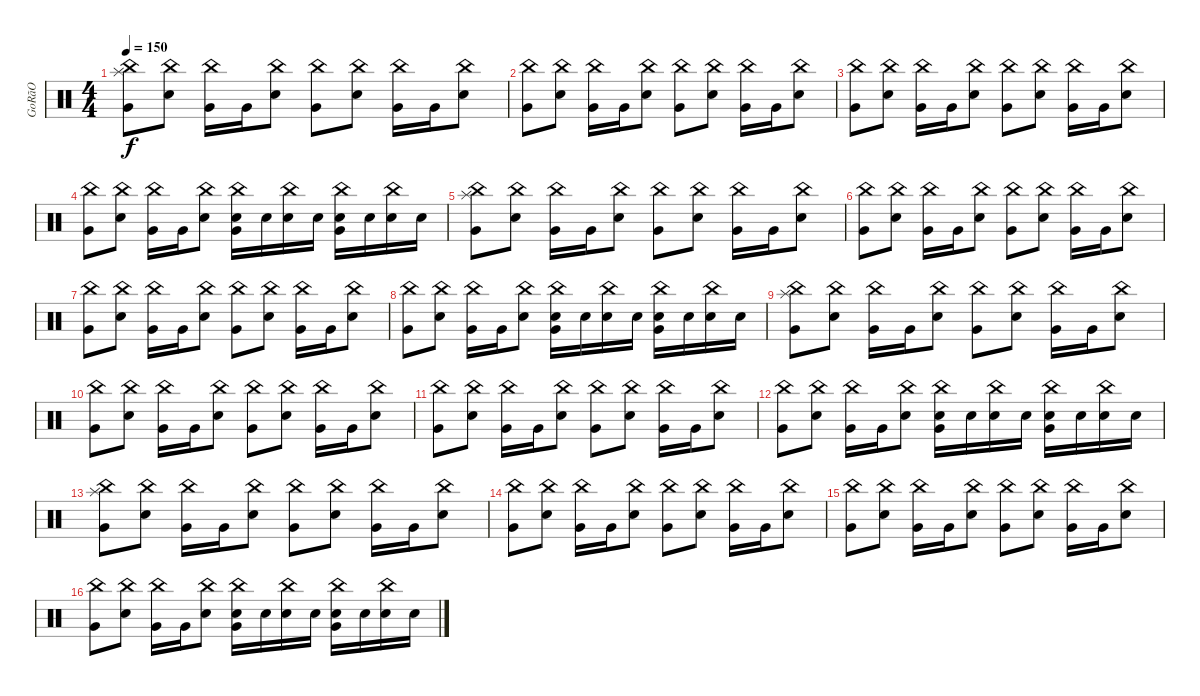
\track ("GoRãO" "GoRãO") {instrument percussion}
\staff {score}
\articulation defaults
\ts (4 4)
\tempo 150
\clef neutral
\ks c
("Very Low Tom (hit)" "Splash (hit)" "China (hit)").8{dy f} ("Electric Snare (hit)" "China (hit)").8 ("Very Low Tom (hit)" "China (hit)").16 "Very Low Tom (hit)".16 ("Electric Snare (hit)" "China (hit)").8 ("Very Low Tom (hit)" "China (hit)").8 ("Electric Snare (hit)" "China (hit)").8 ("Very Low Tom (hit)" "China (hit)").16 "Very Low Tom (hit)".16 ("Electric Snare (hit)" "China (hit)").8 |
("Very Low Tom (hit)" "China (hit)").8 ("Electric Snare (hit)" "China (hit)").8 ("Very Low Tom (hit)" "China (hit)").16 "Very Low Tom (hit)".16 ("Electric Snare (hit)" "China (hit)").8 ("Very Low Tom (hit)" "China (hit)").8 ("Electric Snare (hit)" "China (hit)").8 ("Very Low Tom (hit)" "China (hit)").16 "Very Low Tom (hit)".16 ("Electric Snare (hit)" "China (hit)").8 |
("Very Low Tom (hit)" "China (hit)").8 ("Electric Snare (hit)" "China (hit)").8 ("Very Low Tom (hit)" "China (hit)").16 "Very Low Tom (hit)".16 ("Electric Snare (hit)" "China (hit)").8 ("Very Low Tom (hit)" "China (hit)").8 ("Electric Snare (hit)" "China (hit)").8 ("Very Low Tom (hit)" "China (hit)").16 "Very Low Tom (hit)".16 ("Electric Snare (hit)" "China (hit)").8 |
("Very Low Tom (hit)" "China (hit)").8 ("Electric Snare (hit)" "China (hit)").8 ("Very Low Tom (hit)" "China (hit)").16 "Very Low Tom (hit)".16 ("Electric Snare (hit)" "China (hit)").8 ("Snare (hit) 2" "Very Low Tom (hit)" "China (hit)").16 "Snare (hit) 2".16 ("Snare (hit) 2" "China (hit)").16 "Snare (hit) 2".16 ("Snare (hit) 2" "Very Low Tom (hit)" "China (hit)").16 "Snare (hit) 2".16 ("Snare (hit) 2" "China (hit)").16 "Snare (hit) 2".16 |
("Very Low Tom (hit)" "Splash (hit)" "China (hit)").8 ("Electric Snare (hit)" "China (hit)").8 ("Very Low Tom (hit)" "China (hit)").16 "Very Low Tom (hit)".16 ("Electric Snare (hit)" "China (hit)").8 ("Very Low Tom (hit)" "China (hit)").8 ("Electric Snare (hit)" "China (hit)").8 ("Very Low Tom (hit)" "China (hit)").16 "Very Low Tom (hit)".16 ("Electric Snare (hit)" "China (hit)").8 |
("Very Low Tom (hit)" "China (hit)").8 ("Electric Snare (hit)" "China (hit)").8 ("Very Low Tom (hit)" "China (hit)").16 "Very Low Tom (hit)".16 ("Electric Snare (hit)" "China (hit)").8 ("Very Low Tom (hit)" "China (hit)").8 ("Electric Snare (hit)" "China (hit)").8 ("Very Low Tom (hit)" "China (hit)").16 "Very Low Tom (hit)".16 ("Electric Snare (hit)" "China (hit)").8 |
("Very Low Tom (hit)" "China (hit)").8 ("Electric Snare (hit)" "China (hit)").8 ("Very Low Tom (hit)" "China (hit)").16 "Very Low Tom (hit)".16 ("Electric Snare (hit)" "China (hit)").8 ("Very Low Tom (hit)" "China (hit)").8 ("Electric Snare (hit)" "China (hit)").8 ("Very Low Tom (hit)" "China (hit)").16 "Very Low Tom (hit)".16 ("Electric Snare (hit)" "China (hit)").8 |
("Very Low Tom (hit)" "China (hit)").8 ("Electric Snare (hit)" "China (hit)").8 ("Very Low Tom (hit)" "China (hit)").16 "Very Low Tom (hit)".16 ("Electric Snare (hit)" "China (hit)").8 ("Snare (hit) 2" "Very Low Tom (hit)" "China (hit)").16 "Snare (hit) 2".16 ("Snare (hit) 2" "China (hit)").16 "Snare (hit) 2".16 ("Snare (hit) 2" "Very Low Tom (hit)" "China (hit)").16 "Snare (hit) 2".16 ("Snare (hit) 2" "China (hit)").16 "Snare (hit) 2".16 |
("Very Low Tom (hit)" "Splash (hit)" "China (hit)").8 ("Electric Snare (hit)" "China (hit)").8 ("Very Low Tom (hit)" "China (hit)").16 "Very Low Tom (hit)".16 ("Electric Snare (hit)" "China (hit)").8 ("Very Low Tom (hit)" "China (hit)").8 ("Electric Snare (hit)" "China (hit)").8 ("Very Low Tom (hit)" "China (hit)").16 "Very Low Tom (hit)".16 ("Electric Snare (hit)" "China (hit)").8 |
("Very Low Tom (hit)" "China (hit)").8 ("Electric Snare (hit)" "China (hit)").8 ("Very Low Tom (hit)" "China (hit)").16 "Very Low Tom (hit)".16 ("Electric Snare (hit)" "China (hit)").8 ("Very Low Tom (hit)" "China (hit)").8 ("Electric Snare (hit)" "China (hit)").8 ("Very Low Tom (hit)" "China (hit)").16 "Very Low Tom (hit)".16 ("Electric Snare (hit)" "China (hit)").8 |
("Very Low Tom (hit)" "China (hit)").8 ("Electric Snare (hit)" "China (hit)").8 ("Very Low Tom (hit)" "China (hit)").16 "Very Low Tom (hit)".16 ("Electric Snare (hit)" "China (hit)").8 ("Very Low Tom (hit)" "China (hit)").8 ("Electric Snare (hit)" "China (hit)").8 ("Very Low Tom (hit)" "China (hit)").16 "Very Low Tom (hit)".16 ("Electric Snare (hit)" "China (hit)").8 |
("Very Low Tom (hit)" "China (hit)").8 ("Electric Snare (hit)" "China (hit)").8 ("Very Low Tom (hit)" "China (hit)").16 "Very Low Tom (hit)".16 ("Electric Snare (hit)" "China (hit)").8 ("Snare (hit) 2" "Very Low Tom (hit)" "China (hit)").16 "Snare (hit) 2".16 ("Snare (hit) 2" "China (hit)").16 "Snare (hit) 2".16 ("Snare (hit) 2" "Very Low Tom (hit)" "China (hit)").16 "Snare (hit) 2".16 ("Snare (hit) 2" "China (hit)").16 "Snare (hit) 2".16 |
("Very Low Tom (hit)" "Splash (hit)" "China (hit)").8 ("Electric Snare (hit)" "China (hit)").8 ("Very Low Tom (hit)" "China (hit)").16 "Very Low Tom (hit)".16 ("Electric Snare (hit)" "China (hit)").8 ("Very Low Tom (hit)" "China (hit)").8 ("Electric Snare (hit)" "China (hit)").8 ("Very Low Tom (hit)" "China (hit)").16 "Very Low Tom (hit)".16 ("Electric Snare (hit)" "China (hit)").8 |
("Very Low Tom (hit)" "China (hit)").8 ("Electric Snare (hit)" "China (hit)").8 ("Very Low Tom (hit)" "China (hit)").16 "Very Low Tom (hit)".16 ("Electric Snare (hit)" "China (hit)").8 ("Very Low Tom (hit)" "China (hit)").8 ("Electric Snare (hit)" "China (hit)").8 ("Very Low Tom (hit)" "China (hit)").16 "Very Low Tom (hit)".16 ("Electric Snare (hit)" "China (hit)").8 |
("Very Low Tom (hit)" "China (hit)").8 ("Electric Snare (hit)" "China (hit)").8 ("Very Low Tom (hit)" "China (hit)").16 "Very Low Tom (hit)".16 ("Electric Snare (hit)" "China (hit)").8 ("Very Low Tom (hit)" "China (hit)").8 ("Electric Snare (hit)" "China (hit)").8 ("Very Low Tom (hit)" "China (hit)").16 "Very Low Tom (hit)".16 ("Electric Snare (hit)" "China (hit)").8 |
("Very Low Tom (hit)" "China (hit)").8 ("Electric Snare (hit)" "China (hit)").8 ("Very Low Tom (hit)" "China (hit)").16 "Very Low Tom (hit)".16 ("Electric Snare (hit)" "China (hit)").8 ("Snare (hit) 2" "Very Low Tom (hit)" "China (hit)").16 "Snare (hit) 2".16 ("Snare (hit) 2" "China (hit)").16 "Snare (hit) 2".16 ("Snare (hit) 2" "Very Low Tom (hit)" "China (hit)").16 "Snare (hit) 2".16 ("Snare (hit) 2" "China (hit)").16 "Snare (hit) 2".16
